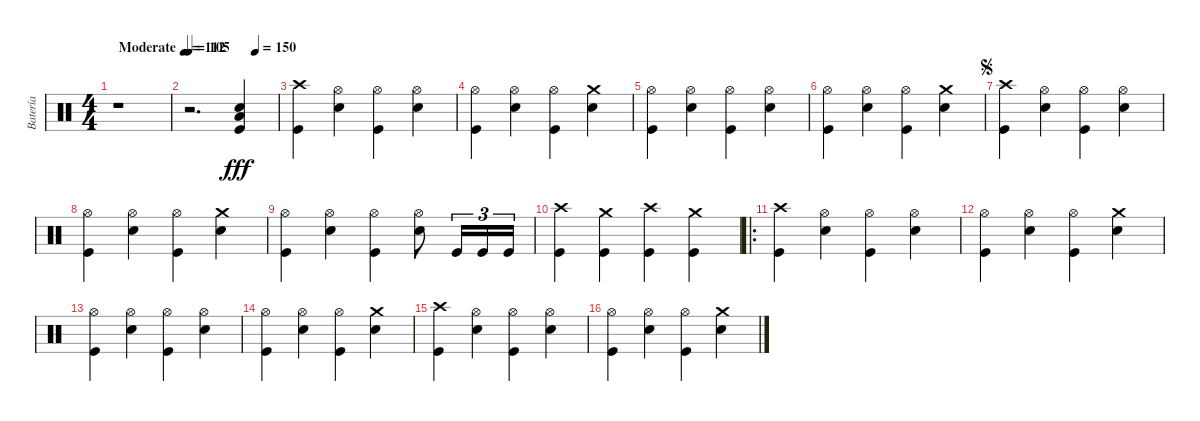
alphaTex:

\track ("Batería" "Batería") {instrument percussion}
\staff {score}
\articulation defaults
\ts (4 4)
\tempo (112 "Moderate")
\tempo 97
\tempo (112 "Moderate")
\clef neutral
\ks c
r.1{dy fff} |
\tempo 105
\tempo (150 0.75)
r.2{d} ("Low Floor Tom (hit)" "Snare (hit) 2" "Kick (hit)").4 |
("Crash high (hit)" "Kick (hit)").4{volume 12} ("Hi-Hat (open)" "Snare (hit) 2").4 ("Hi-Hat (open)" "Kick (hit)").4 ("Hi-Hat (open)" "Snare (hit) 2").4 |
("Hi-Hat (open)" "Kick (hit)").4 ("Hi-Hat (open)" "Snare (hit) 2").4 ("Hi-Hat (open)" "Kick (hit)").4 ("Crash medium (hit)" "Snare (hit) 2").4 |
("Hi-Hat (open)" "Kick (hit)").4 ("Hi-Hat (open)" "Snare (hit) 2").4 ("Hi-Hat (open)" "Kick (hit)").4 ("Hi-Hat (open)" "Snare (hit) 2").4 |
("Hi-Hat (open)" "Kick (hit)").4 ("Hi-Hat (open)" "Snare (hit) 2").4 ("Hi-Hat (open)" "Kick (hit)").4 ("Crash medium (hit)" "Snare (hit) 2").4 |
\jump segno
("Crash high (hit)" "Kick (hit)").4 ("Hi-Hat (open)" "Snare (hit) 2").4 ("Hi-Hat (open)" "Kick (hit)").4 ("Hi-Hat (open)" "Snare (hit) 2").4 |
("Hi-Hat (open)" "Kick (hit)").4 ("Hi-Hat (open)" "Snare (hit) 2").4 ("Hi-Hat (open)" "Kick (hit)").4 ("Crash medium (hit)" "Snare (hit) 2").4 |
("Hi-Hat (open)" "Kick (hit)").4 ("Hi-Hat (open)" "Snare (hit) 2").4 ("Hi-Hat (open)" "Kick (hit)").4 ("Hi-Hat (open)" "Snare (hit) 2").8 "Kick (hit)".16{tu (3 2)} "Kick (hit)".16{tu (3 2)} "Kick (hit)".16{tu (3 2)} |
("Crash high (hit)" "Kick (hit)").4 ("Crash medium (hit)" "Kick (hit)").4 ("Crash high (hit)" "Kick (hit)").4 ("Crash medium (hit)" "Kick (hit)").4 |
\ro
("Crash high (hit)" "Kick (hit)").4 ("Hi-Hat (open)" "Snare (hit) 2").4 ("Hi-Hat (open)" "Kick (hit)").4 ("Hi-Hat (open)" "Snare (hit) 2").4 |
("Hi-Hat (open)" "Kick (hit)").4 ("Hi-Hat (open)" "Snare (hit) 2").4 ("Hi-Hat (open)" "Kick (hit)").4 ("Crash medium (hit)" "Snare (hit) 2").4 |
("Hi-Hat (open)" "Kick (hit)").4 ("Hi-Hat (open)" "Snare (hit) 2").4 ("Hi-Hat (open)" "Kick (hit)").4 ("Hi-Hat (open)" "Snare (hit) 2").4 |
("Hi-Hat (open)" "Kick (hit)").4 ("Hi-Hat (open)" "Snare (hit) 2").4 ("Hi-Hat (open)" "Kick (hit)").4 ("Crash medium (hit)" "Snare (hit) 2").4 |
("Crash high (hit)" "Kick (hit)").4 ("Hi-Hat (open)" "Snare (hit) 2").4 ("Hi-Hat (open)" "Kick (hit)").4 ("Hi-Hat (open)" "Snare (hit) 2").4 |
("Hi-Hat (open)" "Kick (hit)").4 ("Hi-Hat (open)" "Snare (hit) 2").4 ("Hi-Hat (open)" "Kick (hit)").4 ("Crash medium (hit)" "Snare (hit) 2").4
